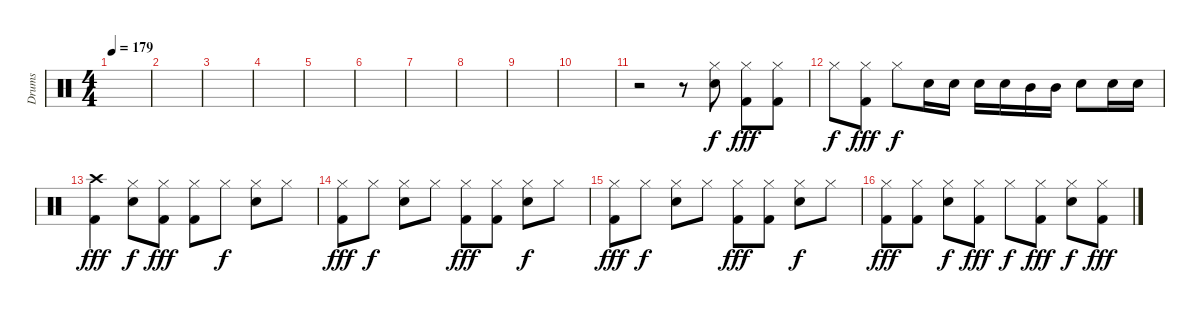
\track ("Drums" "Drums") {instrument percussion}
\staff {score}
\articulation defaults
\ts (4 4)
\tempo 179
\clef neutral
\ks c
|
|
|
|
|
|
|
|
|
|
r.2 r.8 ("Hi-Hat (closed)" "Electric Snare (hit)").8 ("Hi-Hat (closed)" "Kick (hit) 2").8{dy fff} ("Hi-Hat (closed)" "Kick (hit) 2").8 |
"Hi-Hat (closed)".8{dy f} ("Hi-Hat (closed)" "Kick (hit) 2").8{dy fff} "Hi-Hat (closed)".8{dy f} "Electric Snare (hit)".16 "Electric Snare (hit)".16 "Electric Snare (hit)".16 "Electric Snare (hit)".16 "Mid Tom (hit)".16 "Mid Tom (hit)".16 "Electric Snare (hit)".8 "Electric Snare (hit)".16 "Electric Snare (hit)".16 |
("Crash high (hit)" "Kick (hit) 2").4{dy fff} ("Hi-Hat (closed)" "Electric Snare (hit)").8{dy f} ("Hi-Hat (closed)" "Kick (hit) 2").8{dy fff} ("Hi-Hat (closed)" "Kick (hit) 2").8 "Hi-Hat (closed)".8{dy f} ("Hi-Hat (closed)" "Electric Snare (hit)").8 "Hi-Hat (closed)".8 |
("Hi-Hat (closed)" "Kick (hit) 2").8{dy fff} "Hi-Hat (closed)".8{dy f} ("Hi-Hat (closed)" "Electric Snare (hit)").8 "Hi-Hat (closed)".8 ("Hi-Hat (closed)" "Kick (hit) 2").8{dy fff} ("Hi-Hat (closed)" "Kick (hit) 2").8 ("Hi-Hat (closed)" "Electric Snare (hit)").8{dy f} "Hi-Hat (closed)".8 |
("Hi-Hat (closed)" "Kick (hit) 2").8{dy fff} "Hi-Hat (closed)".8{dy f} ("Hi-Hat (closed)" "Electric Snare (hit)").8 "Hi-Hat (closed)".8 ("Hi-Hat (closed)" "Kick (hit) 2").8{dy fff} ("Hi-Hat (closed)" "Kick (hit) 2").8 ("Hi-Hat (closed)" "Electric Snare (hit)").8{dy f} "Hi-Hat (closed)".8 |
("Hi-Hat (closed)" "Kick (hit) 2").8{dy fff} ("Hi-Hat (closed)" "Kick (hit) 2").8 ("Hi-Hat (closed)" "Electric Snare (hit)").8{dy f} ("Hi-Hat (closed)" "Kick (hit) 2").8{dy fff} "Hi-Hat (closed)".8{dy f} ("Hi-Hat (closed)" "Kick (hit) 2").8{dy fff} ("Hi-Hat (closed)" "Electric Snare (hit)").8{dy f} ("Hi-Hat (closed)" "Kick (hit) 2").8{dy fff}
